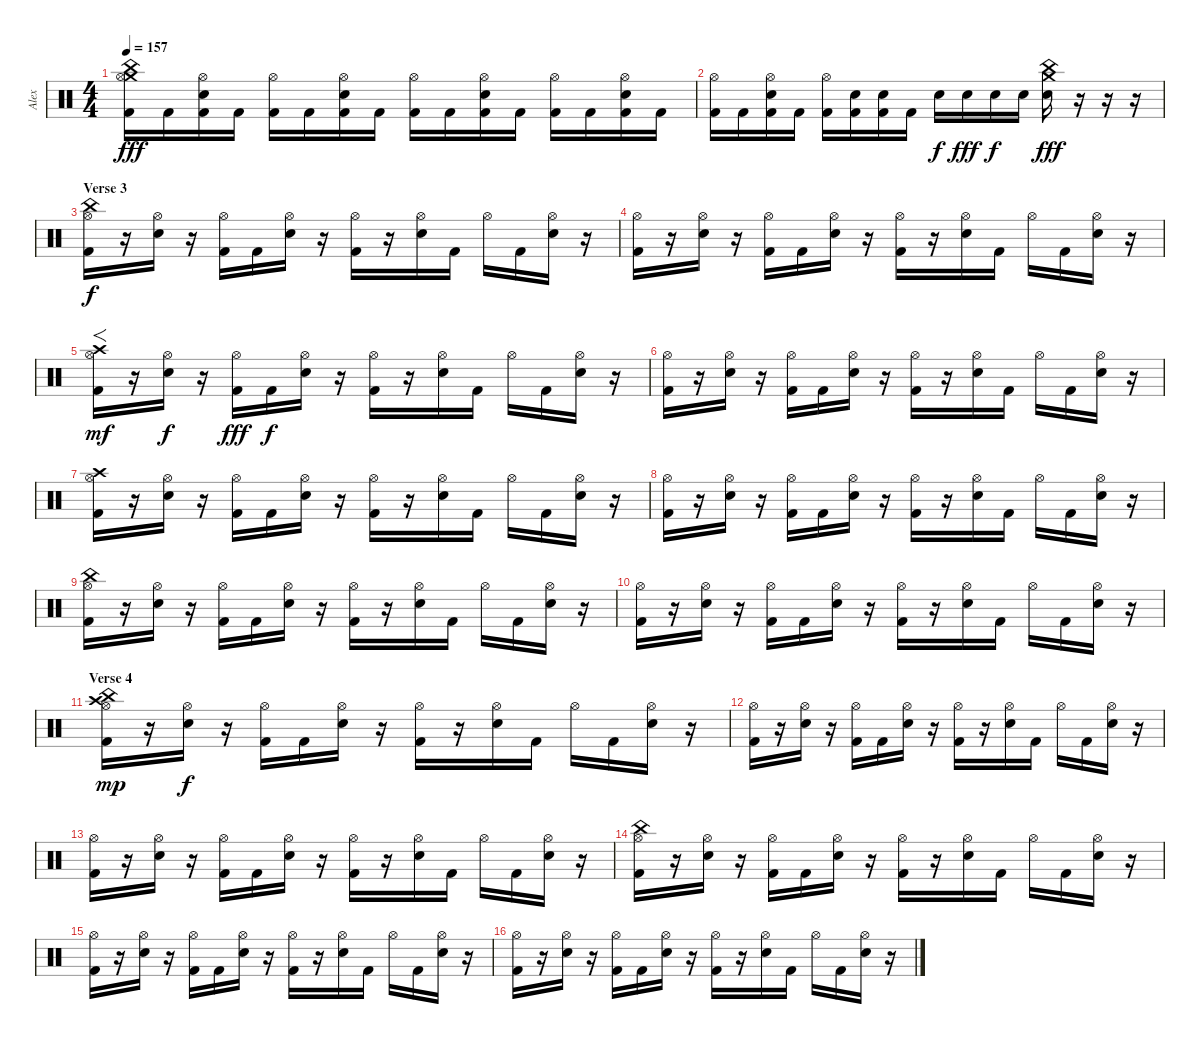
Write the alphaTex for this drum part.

\track ("Alex" "Alex") {instrument percussion}
\staff {score}
\articulation defaults
\ts (4 4)
\tempo 157
\clef neutral
\ks c
("Crash medium (hit)" "China (hit)" "Hi-Hat (open)" "Kick (hit) 2").16{dy fff} "Kick (hit) 2".16 ("Hi-Hat (open)" "Electric Snare (hit)" "Kick (hit) 2").16 "Kick (hit) 2".16 ("Hi-Hat (open)" "Kick (hit) 2").16 "Kick (hit) 2".16 ("Hi-Hat (open)" "Electric Snare (hit)" "Kick (hit) 2").16 "Kick (hit) 2".16 ("Hi-Hat (open)" "Kick (hit) 2").16 "Kick (hit) 2".16 ("Hi-Hat (open)" "Electric Snare (hit)" "Kick (hit) 2").16 "Kick (hit) 2".16 ("Hi-Hat (open)" "Kick (hit) 2").16 "Kick (hit) 2".16 ("Hi-Hat (open)" "Electric Snare (hit)" "Kick (hit) 2").16 "Kick (hit) 2".16 |
("Hi-Hat (open)" "Kick (hit) 2").16 "Kick (hit) 2".16 ("Hi-Hat (open)" "Electric Snare (hit)" "Kick (hit) 2").16 "Kick (hit) 2".16 ("Hi-Hat (open)" "Kick (hit) 2").16 ("Electric Snare (hit)" "Kick (hit) 2").16 ("Electric Snare (hit)" "Kick (hit) 2").16 "Kick (hit) 2".16 "Electric Snare (hit)".16{dy f} "Electric Snare (hit)".16{dy fff} "Electric Snare (hit)".16{dy f} "Electric Snare (hit)".16 ("Crash medium (hit)" "China (hit)" "Electric Snare (hit)").16{dy fff} r.16 r.16 r.16 |
\section ("" "Verse 3")
("China (hit)" "Hi-Hat (open)" "Kick (hit) 2").16{dy f} r.16 ("Hi-Hat (open)" "Electric Snare (hit)").16 r.16 ("Hi-Hat (open)" "Kick (hit) 2").16 "Kick (hit) 2".16 ("Hi-Hat (open)" "Electric Snare (hit)").16 r.16 ("Hi-Hat (open)" "Kick (hit) 2").16 r.16 ("Hi-Hat (open)" "Electric Snare (hit)").16 "Kick (hit) 2".16 "Hi-Hat (open)".16 "Kick (hit) 2".16 ("Hi-Hat (open)" "Electric Snare (hit)").16 r.16 |
("Hi-Hat (open)" "Kick (hit) 2").16 r.16 ("Hi-Hat (open)" "Electric Snare (hit)").16 r.16 ("Hi-Hat (open)" "Kick (hit) 2").16 "Kick (hit) 2".16 ("Hi-Hat (open)" "Electric Snare (hit)").16 r.16 ("Hi-Hat (open)" "Kick (hit) 2").16 r.16 ("Hi-Hat (open)" "Electric Snare (hit)").16 "Kick (hit) 2".16 "Hi-Hat (open)".16 "Kick (hit) 2".16 ("Hi-Hat (open)" "Electric Snare (hit)").16 r.16 |
("Crash high (hit)" "Hi-Hat (open)" "Kick (hit) 2").16{f dy mf} r.16 ("Hi-Hat (open)" "Electric Snare (hit)").16{dy f} r.16 ("Hi-Hat (open)" "Kick (hit) 2").16{dy fff} "Kick (hit) 2".16{dy f} ("Hi-Hat (open)" "Electric Snare (hit)").16 r.16 ("Hi-Hat (open)" "Kick (hit) 2").16 r.16 ("Hi-Hat (open)" "Electric Snare (hit)").16 "Kick (hit) 2".16 "Hi-Hat (open)".16 "Kick (hit) 2".16 ("Hi-Hat (open)" "Electric Snare (hit)").16 r.16 |
("Hi-Hat (open)" "Kick (hit) 2").16 r.16 ("Hi-Hat (open)" "Electric Snare (hit)").16 r.16 ("Hi-Hat (open)" "Kick (hit) 2").16 "Kick (hit) 2".16 ("Hi-Hat (open)" "Electric Snare (hit)").16 r.16 ("Hi-Hat (open)" "Kick (hit) 2").16 r.16 ("Hi-Hat (open)" "Electric Snare (hit)").16 "Kick (hit) 2".16 "Hi-Hat (open)".16 "Kick (hit) 2".16 ("Hi-Hat (open)" "Electric Snare (hit)").16 r.16 |
("Crash high (hit)" "Hi-Hat (open)" "Kick (hit) 2").16 r.16 ("Hi-Hat (open)" "Electric Snare (hit)").16 r.16 ("Hi-Hat (open)" "Kick (hit) 2").16 "Kick (hit) 2".16 ("Hi-Hat (open)" "Electric Snare (hit)").16 r.16 ("Hi-Hat (open)" "Kick (hit) 2").16 r.16 ("Hi-Hat (open)" "Electric Snare (hit)").16 "Kick (hit) 2".16 "Hi-Hat (open)".16 "Kick (hit) 2".16 ("Hi-Hat (open)" "Electric Snare (hit)").16 r.16 |
("Hi-Hat (open)" "Kick (hit) 2").16 r.16 ("Hi-Hat (open)" "Electric Snare (hit)").16 r.16 ("Hi-Hat (open)" "Kick (hit) 2").16 "Kick (hit) 2".16 ("Hi-Hat (open)" "Electric Snare (hit)").16 r.16 ("Hi-Hat (open)" "Kick (hit) 2").16 r.16 ("Hi-Hat (open)" "Electric Snare (hit)").16 "Kick (hit) 2".16 "Hi-Hat (open)".16 "Kick (hit) 2".16 ("Hi-Hat (open)" "Electric Snare (hit)").16 r.16 |
("China (hit)" "Hi-Hat (open)" "Kick (hit) 2").16 r.16 ("Hi-Hat (open)" "Electric Snare (hit)").16 r.16 ("Hi-Hat (open)" "Kick (hit) 2").16 "Kick (hit) 2".16 ("Hi-Hat (open)" "Electric Snare (hit)").16 r.16 ("Hi-Hat (open)" "Kick (hit) 2").16 r.16 ("Hi-Hat (open)" "Electric Snare (hit)").16 "Kick (hit) 2".16 "Hi-Hat (open)".16 "Kick (hit) 2".16 ("Hi-Hat (open)" "Electric Snare (hit)").16 r.16 |
("Hi-Hat (open)" "Kick (hit) 2").16 r.16 ("Hi-Hat (open)" "Electric Snare (hit)").16 r.16 ("Hi-Hat (open)" "Kick (hit) 2").16 "Kick (hit) 2".16 ("Hi-Hat (open)" "Electric Snare (hit)").16 r.16 ("Hi-Hat (open)" "Kick (hit) 2").16 r.16 ("Hi-Hat (open)" "Electric Snare (hit)").16 "Kick (hit) 2".16 "Hi-Hat (open)".16 "Kick (hit) 2".16 ("Hi-Hat (open)" "Electric Snare (hit)").16 r.16 |
\section ("" "Verse 4")
("China (hit)" "Crash high (hit)" "Hi-Hat (open)" "Kick (hit) 2").16{dy mp} r.16 ("Hi-Hat (open)" "Electric Snare (hit)").16{dy f} r.16 ("Hi-Hat (open)" "Kick (hit) 2").16 "Kick (hit) 2".16 ("Hi-Hat (open)" "Electric Snare (hit)").16 r.16 ("Hi-Hat (open)" "Kick (hit) 2").16 r.16 ("Hi-Hat (open)" "Electric Snare (hit)").16 "Kick (hit) 2".16 "Hi-Hat (open)".16 "Kick (hit) 2".16 ("Hi-Hat (open)" "Electric Snare (hit)").16 r.16 |
("Hi-Hat (open)" "Kick (hit) 2").16 r.16 ("Hi-Hat (open)" "Electric Snare (hit)").16 r.16 ("Hi-Hat (open)" "Kick (hit) 2").16 "Kick (hit) 2".16 ("Hi-Hat (open)" "Electric Snare (hit)").16 r.16 ("Hi-Hat (open)" "Kick (hit) 2").16 r.16 ("Hi-Hat (open)" "Electric Snare (hit)").16 "Kick (hit) 2".16 "Hi-Hat (open)".16 "Kick (hit) 2".16 ("Hi-Hat (open)" "Electric Snare (hit)").16 r.16 |
("Hi-Hat (open)" "Kick (hit) 2").16 r.16 ("Hi-Hat (open)" "Electric Snare (hit)").16 r.16 ("Hi-Hat (open)" "Kick (hit) 2").16 "Kick (hit) 2".16 ("Hi-Hat (open)" "Electric Snare (hit)").16 r.16 ("Hi-Hat (open)" "Kick (hit) 2").16 r.16 ("Hi-Hat (open)" "Electric Snare (hit)").16 "Kick (hit) 2".16 "Hi-Hat (open)".16 "Kick (hit) 2".16 ("Hi-Hat (open)" "Electric Snare (hit)").16 r.16 |
("China (hit)" "Hi-Hat (open)" "Kick (hit) 2").16 r.16 ("Hi-Hat (open)" "Electric Snare (hit)").16 r.16 ("Hi-Hat (open)" "Kick (hit) 2").16 "Kick (hit) 2".16 ("Hi-Hat (open)" "Electric Snare (hit)").16 r.16 ("Hi-Hat (open)" "Kick (hit) 2").16 r.16 ("Hi-Hat (open)" "Electric Snare (hit)").16 "Kick (hit) 2".16 "Hi-Hat (open)".16 "Kick (hit) 2".16 ("Hi-Hat (open)" "Electric Snare (hit)").16 r.16 |
("Hi-Hat (open)" "Kick (hit) 2").16 r.16 ("Hi-Hat (open)" "Electric Snare (hit)").16 r.16 ("Hi-Hat (open)" "Kick (hit) 2").16 "Kick (hit) 2".16 ("Hi-Hat (open)" "Electric Snare (hit)").16 r.16 ("Hi-Hat (open)" "Kick (hit) 2").16 r.16 ("Hi-Hat (open)" "Electric Snare (hit)").16 "Kick (hit) 2".16 "Hi-Hat (open)".16 "Kick (hit) 2".16 ("Hi-Hat (open)" "Electric Snare (hit)").16 r.16 |
("Hi-Hat (open)" "Kick (hit) 2").16 r.16 ("Hi-Hat (open)" "Electric Snare (hit)").16 r.16 ("Hi-Hat (open)" "Kick (hit) 2").16 "Kick (hit) 2".16 ("Hi-Hat (open)" "Electric Snare (hit)").16 r.16 ("Hi-Hat (open)" "Kick (hit) 2").16 r.16 ("Hi-Hat (open)" "Electric Snare (hit)").16 "Kick (hit) 2".16 "Hi-Hat (open)".16 "Kick (hit) 2".16 ("Hi-Hat (open)" "Electric Snare (hit)").16 r.16
